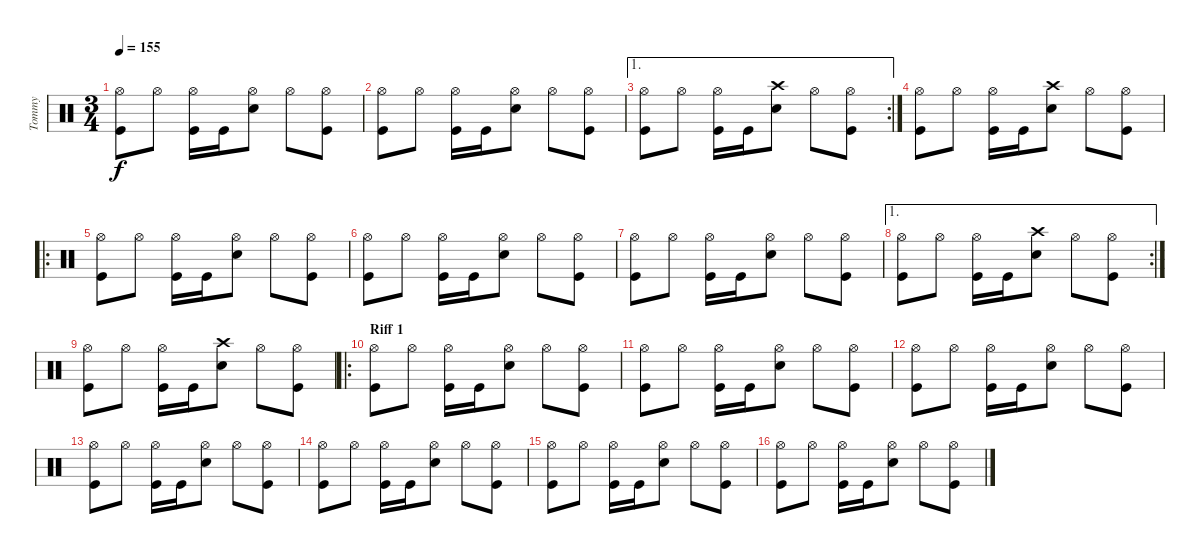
\track ("Tommy" "Tommy") {instrument percussion}
\staff {score}
\articulation defaults
\ts (3 4)
\tempo 155
\clef neutral
\ks c
("Hi-Hat (open)" "Kick (hit)").8{dy f} "Hi-Hat (open)".8 ("Hi-Hat (open)" "Kick (hit)").16 "Kick (hit)".16 ("Electric Snare (hit)" "Hi-Hat (open)").8 "Hi-Hat (open)".8 ("Hi-Hat (open)" "Kick (hit)").8 |
("Hi-Hat (open)" "Kick (hit)").8 "Hi-Hat (open)".8 ("Hi-Hat (open)" "Kick (hit)").16 "Kick (hit)".16 ("Electric Snare (hit)" "Hi-Hat (open)").8 "Hi-Hat (open)".8 ("Hi-Hat (open)" "Kick (hit)").8 |
\ae 1
\rc 2
("Hi-Hat (open)" "Kick (hit)").8 "Hi-Hat (open)".8 ("Hi-Hat (open)" "Kick (hit)").16 "Kick (hit)".16 ("Crash high (hit)" "Electric Snare (hit)").8 "Hi-Hat (open)".8 ("Hi-Hat (open)" "Kick (hit)").8 |
("Hi-Hat (open)" "Kick (hit)").8 "Hi-Hat (open)".8 ("Hi-Hat (open)" "Kick (hit)").16 "Kick (hit)".16 ("Crash high (hit)" "Electric Snare (hit)").8 "Hi-Hat (open)".8 ("Hi-Hat (open)" "Kick (hit)").8 |
\ro
("Hi-Hat (open)" "Kick (hit)").8 "Hi-Hat (open)".8 ("Hi-Hat (open)" "Kick (hit)").16 "Kick (hit)".16 ("Electric Snare (hit)" "Hi-Hat (open)").8 "Hi-Hat (open)".8 ("Hi-Hat (open)" "Kick (hit)").8 |
("Hi-Hat (open)" "Kick (hit)").8 "Hi-Hat (open)".8 ("Hi-Hat (open)" "Kick (hit)").16 "Kick (hit)".16 ("Electric Snare (hit)" "Hi-Hat (open)").8 "Hi-Hat (open)".8 ("Hi-Hat (open)" "Kick (hit)").8 |
("Hi-Hat (open)" "Kick (hit)").8 "Hi-Hat (open)".8 ("Hi-Hat (open)" "Kick (hit)").16 "Kick (hit)".16 ("Electric Snare (hit)" "Hi-Hat (open)").8 "Hi-Hat (open)".8 ("Hi-Hat (open)" "Kick (hit)").8 |
\ae 1
\rc 2
("Hi-Hat (open)" "Kick (hit)").8 "Hi-Hat (open)".8 ("Hi-Hat (open)" "Kick (hit)").16 "Kick (hit)".16 ("Crash high (hit)" "Electric Snare (hit)").8 "Hi-Hat (open)".8 ("Hi-Hat (open)" "Kick (hit)").8 |
("Hi-Hat (open)" "Kick (hit)").8 "Hi-Hat (open)".8 ("Hi-Hat (open)" "Kick (hit)").16 "Kick (hit)".16 ("Crash high (hit)" "Electric Snare (hit)").8 "Hi-Hat (open)".8 ("Hi-Hat (open)" "Kick (hit)").8 |
\ro
\section ("" "Riff 1")
("Hi-Hat (open)" "Kick (hit)").8 "Hi-Hat (open)".8 ("Hi-Hat (open)" "Kick (hit)").16 "Kick (hit)".16 ("Electric Snare (hit)" "Hi-Hat (open)").8 "Hi-Hat (open)".8 ("Hi-Hat (open)" "Kick (hit)").8 |
("Hi-Hat (open)" "Kick (hit)").8 "Hi-Hat (open)".8 ("Hi-Hat (open)" "Kick (hit)").16 "Kick (hit)".16 ("Electric Snare (hit)" "Hi-Hat (open)").8 "Hi-Hat (open)".8 ("Hi-Hat (open)" "Kick (hit)").8 |
("Hi-Hat (open)" "Kick (hit)").8 "Hi-Hat (open)".8 ("Hi-Hat (open)" "Kick (hit)").16 "Kick (hit)".16 ("Electric Snare (hit)" "Hi-Hat (open)").8 "Hi-Hat (open)".8 ("Hi-Hat (open)" "Kick (hit)").8 |
("Hi-Hat (open)" "Kick (hit)").8 "Hi-Hat (open)".8 ("Hi-Hat (open)" "Kick (hit)").16 "Kick (hit)".16 ("Electric Snare (hit)" "Hi-Hat (open)").8 "Hi-Hat (open)".8 ("Hi-Hat (open)" "Kick (hit)").8 |
("Hi-Hat (open)" "Kick (hit)").8 "Hi-Hat (open)".8 ("Hi-Hat (open)" "Kick (hit)").16 "Kick (hit)".16 ("Electric Snare (hit)" "Hi-Hat (open)").8 "Hi-Hat (open)".8 ("Hi-Hat (open)" "Kick (hit)").8 |
("Hi-Hat (open)" "Kick (hit)").8 "Hi-Hat (open)".8 ("Hi-Hat (open)" "Kick (hit)").16 "Kick (hit)".16 ("Electric Snare (hit)" "Hi-Hat (open)").8 "Hi-Hat (open)".8 ("Hi-Hat (open)" "Kick (hit)").8 |
("Hi-Hat (open)" "Kick (hit)").8 "Hi-Hat (open)".8 ("Hi-Hat (open)" "Kick (hit)").16 "Kick (hit)".16 ("Electric Snare (hit)" "Hi-Hat (open)").8 "Hi-Hat (open)".8 ("Hi-Hat (open)" "Kick (hit)").8
